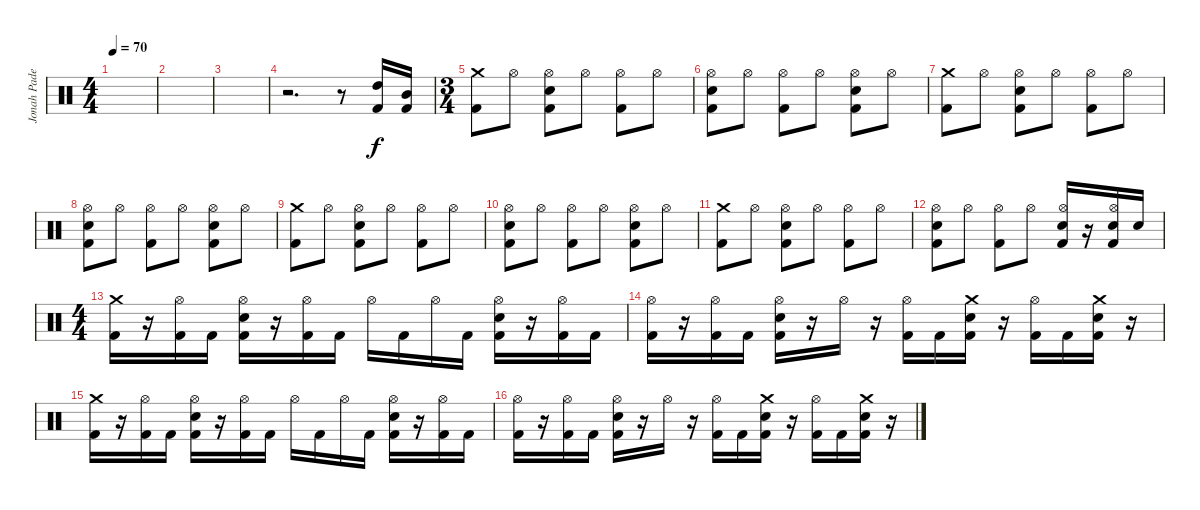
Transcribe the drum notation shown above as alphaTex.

\track ("Jonah Padella" "Jonah Pade") {instrument percussion}
\staff {score}
\articulation defaults
\ts (4 4)
\tempo 70
\clef neutral
\ks c
|
|
|
r.2{d} r.8 ("High Tom (hit)" "Kick (hit) 2").16 ("Mid Tom (hit)" "Kick (hit) 2").16 |
\ts (3 4)
("Crash medium (hit)" "Kick (hit) 2").8 "Hi-Hat (open)".8 ("Hi-Hat (open)" "Snare (hit) 2" "Kick (hit) 2").8 "Hi-Hat (open)".8 ("Hi-Hat (open)" "Kick (hit) 2").8 "Hi-Hat (open)".8 |
("Hi-Hat (open)" "Snare (hit) 2" "Kick (hit) 2").8 "Hi-Hat (open)".8 ("Hi-Hat (open)" "Kick (hit) 2").8 "Hi-Hat (open)".8 ("Hi-Hat (open)" "Snare (hit) 2" "Kick (hit) 2").8 "Hi-Hat (open)".8 |
("Crash medium (hit)" "Kick (hit) 2").8 "Hi-Hat (open)".8 ("Hi-Hat (open)" "Snare (hit) 2" "Kick (hit) 2").8 "Hi-Hat (open)".8 ("Hi-Hat (open)" "Kick (hit) 2").8 "Hi-Hat (open)".8 |
("Hi-Hat (open)" "Snare (hit) 2" "Kick (hit) 2").8 "Hi-Hat (open)".8 ("Hi-Hat (open)" "Kick (hit) 2").8 "Hi-Hat (open)".8 ("Hi-Hat (open)" "Snare (hit) 2" "Kick (hit) 2").8 "Hi-Hat (open)".8 |
("Crash medium (hit)" "Kick (hit) 2").8 "Hi-Hat (open)".8 ("Hi-Hat (open)" "Snare (hit) 2" "Kick (hit) 2").8 "Hi-Hat (open)".8 ("Hi-Hat (open)" "Kick (hit) 2").8 "Hi-Hat (open)".8 |
("Hi-Hat (open)" "Snare (hit) 2" "Kick (hit) 2").8 "Hi-Hat (open)".8 ("Hi-Hat (open)" "Kick (hit) 2").8 "Hi-Hat (open)".8 ("Hi-Hat (open)" "Snare (hit) 2" "Kick (hit) 2").8 "Hi-Hat (open)".8 |
("Crash medium (hit)" "Kick (hit) 2").8 "Hi-Hat (open)".8 ("Hi-Hat (open)" "Snare (hit) 2" "Kick (hit) 2").8 "Hi-Hat (open)".8 ("Hi-Hat (open)" "Kick (hit) 2").8 "Hi-Hat (open)".8 |
("Hi-Hat (open)" "Snare (hit) 2" "Kick (hit) 2").8 "Hi-Hat (open)".8 ("Hi-Hat (open)" "Kick (hit) 2").8 "Hi-Hat (open)".8 ("Hi-Hat (open)" "Snare (hit) 2" "Kick (hit) 2").16 r.16 ("Hi-Hat (open)" "Snare (hit) 2" "Kick (hit) 2").16 "Snare (hit) 2".16 |
\ts (4 4)
("Crash medium (hit)" "Kick (hit) 2").16 r.16 ("Hi-Hat (open)" "Kick (hit) 2").16 "Kick (hit) 2".16 ("Hi-Hat (open)" "Snare (hit) 2" "Kick (hit) 2").16 r.16 ("Hi-Hat (open)" "Kick (hit) 2").16 "Kick (hit) 2".16 "Hi-Hat (open)".16 "Kick (hit) 2".16 "Hi-Hat (open)".16 "Kick (hit) 2".16 ("Hi-Hat (open)" "Snare (hit) 2" "Kick (hit) 2").16 r.16 ("Hi-Hat (open)" "Kick (hit) 2").16 "Kick (hit) 2".16 |
("Hi-Hat (open)" "Kick (hit) 2").16 r.16 ("Hi-Hat (open)" "Kick (hit) 2").16 "Kick (hit) 2".16 ("Hi-Hat (open)" "Snare (hit) 2" "Kick (hit) 2").16 r.16 "Hi-Hat (open)".16 r.16 ("Hi-Hat (open)" "Kick (hit) 2").16 "Kick (hit) 2".16 ("Crash medium (hit)" "Snare (hit) 2" "Kick (hit) 2").16 r.16 ("Hi-Hat (open)" "Kick (hit) 2").16 "Kick (hit) 2".16 ("Crash medium (hit)" "Snare (hit) 2" "Kick (hit) 2").16 r.16 |
("Crash medium (hit)" "Kick (hit) 2").16 r.16 ("Hi-Hat (open)" "Kick (hit) 2").16 "Kick (hit) 2".16 ("Hi-Hat (open)" "Snare (hit) 2" "Kick (hit) 2").16 r.16 ("Hi-Hat (open)" "Kick (hit) 2").16 "Kick (hit) 2".16 "Hi-Hat (open)".16 "Kick (hit) 2".16 "Hi-Hat (open)".16 "Kick (hit) 2".16 ("Hi-Hat (open)" "Snare (hit) 2" "Kick (hit) 2").16 r.16 ("Hi-Hat (open)" "Kick (hit) 2").16 "Kick (hit) 2".16 |
("Hi-Hat (open)" "Kick (hit) 2").16 r.16 ("Hi-Hat (open)" "Kick (hit) 2").16 "Kick (hit) 2".16 ("Hi-Hat (open)" "Snare (hit) 2" "Kick (hit) 2").16 r.16 "Hi-Hat (open)".16 r.16 ("Hi-Hat (open)" "Kick (hit) 2").16 "Kick (hit) 2".16 ("Crash medium (hit)" "Snare (hit) 2" "Kick (hit) 2").16 r.16 ("Hi-Hat (open)" "Kick (hit) 2").16 "Kick (hit) 2".16 ("Crash medium (hit)" "Snare (hit) 2" "Kick (hit) 2").16 r.16
